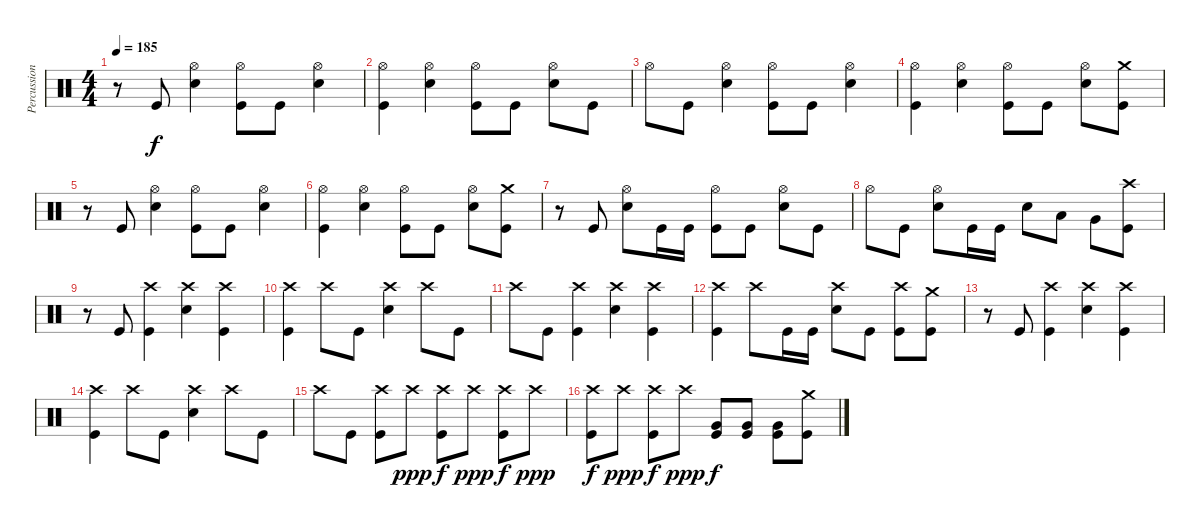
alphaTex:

\track ("Percussion" "Percussion") {instrument percussion}
\staff {score}
\articulation defaults
\ts (4 4)
\tempo 185
\clef neutral
\ks c
r.8{dy f} "Kick (hit)".8 ("Hi-Hat (open)" "Electric Snare (hit)").4 ("Hi-Hat (open)" "Kick (hit)").8 "Kick (hit)".8 ("Hi-Hat (open)" "Electric Snare (hit)").4 |
("Hi-Hat (open)" "Kick (hit)").4 ("Hi-Hat (open)" "Electric Snare (hit)").4 ("Hi-Hat (open)" "Kick (hit)").8 "Kick (hit)".8 ("Hi-Hat (open)" "Electric Snare (hit)").8 "Kick (hit)".8 |
"Hi-Hat (open)".8 "Kick (hit)".8 ("Hi-Hat (open)" "Electric Snare (hit)").4 ("Hi-Hat (open)" "Kick (hit)").8 "Kick (hit)".8 ("Hi-Hat (open)" "Electric Snare (hit)").4 |
("Hi-Hat (open)" "Kick (hit)").4 ("Hi-Hat (open)" "Electric Snare (hit)").4 ("Hi-Hat (open)" "Kick (hit)").8 "Kick (hit)".8 ("Hi-Hat (open)" "Electric Snare (hit)").8 ("Crash medium (hit)" "Kick (hit)").8 |
r.8 "Kick (hit)".8 ("Hi-Hat (open)" "Electric Snare (hit)").4 ("Hi-Hat (open)" "Kick (hit)").8 "Kick (hit)".8 ("Hi-Hat (open)" "Electric Snare (hit)").4 |
("Hi-Hat (open)" "Kick (hit)").4 ("Hi-Hat (open)" "Electric Snare (hit)").4 ("Hi-Hat (open)" "Kick (hit)").8 "Kick (hit)".8 ("Hi-Hat (open)" "Electric Snare (hit)").8 ("Crash medium (hit)" "Kick (hit)").8 |
r.8 "Kick (hit)".8 ("Hi-Hat (open)" "Electric Snare (hit)").8 "Kick (hit)".16 "Kick (hit)".16 ("Hi-Hat (open)" "Kick (hit)").8 "Kick (hit)".8 ("Hi-Hat (open)" "Electric Snare (hit)").8 "Kick (hit)".8 |
"Hi-Hat (open)".8 "Kick (hit)".8 ("Hi-Hat (open)" "Electric Snare (hit)").8 "Kick (hit)".16 "Kick (hit)".16 "Electric Snare (hit)".8 "Low Tom (hit)".8 "Very Low Tom (hit)".8 ("Crash high (hit)" "Kick (hit)").8 |
r.8 "Kick (hit)".8 ("Crash high (hit)" "Kick (hit)").4 ("Crash high (hit)" "Electric Snare (hit)").4 ("Crash high (hit)" "Kick (hit)").4 |
("Crash high (hit)" "Kick (hit)").4 "Crash high (hit)".8 "Kick (hit)".8 ("Crash high (hit)" "Electric Snare (hit)").4 "Crash high (hit)".8 "Kick (hit)".8 |
"Crash high (hit)".8 "Kick (hit)".8 ("Crash high (hit)" "Kick (hit)").4 ("Crash high (hit)" "Electric Snare (hit)").4 ("Crash high (hit)" "Kick (hit)").4 |
("Crash high (hit)" "Kick (hit)").4 "Crash high (hit)".8 "Kick (hit)".16 "Kick (hit)".16 ("Crash high (hit)" "Electric Snare (hit)").8 "Kick (hit)".8 ("Crash high (hit)" "Kick (hit)").8 ("Crash medium (hit)" "Kick (hit)").8 |
r.8 "Kick (hit)".8 ("Crash high (hit)" "Kick (hit)").4 ("Crash high (hit)" "Electric Snare (hit)").4 ("Crash high (hit)" "Kick (hit)").4 |
("Crash high (hit)" "Kick (hit)").4 "Crash high (hit)".8 "Kick (hit)".8 ("Crash high (hit)" "Electric Snare (hit)").4 "Crash high (hit)".8 "Kick (hit)".8 |
"Crash high (hit)".8 "Kick (hit)".8 ("Crash high (hit)" "Kick (hit)").8 "Crash high (hit)".8{dy ppp} ("Crash high (hit)" "Kick (hit)").8{dy f} "Crash high (hit)".8{dy ppp} ("Crash high (hit)" "Kick (hit)").8{dy f} "Crash high (hit)".8{dy ppp} |
("Crash high (hit)" "Kick (hit)").8{dy f} "Crash high (hit)".8{dy ppp} ("Crash high (hit)" "Kick (hit)").8{dy f} "Crash high (hit)".8{dy ppp} ("Very Low Tom (hit)" "Kick (hit)").8{dy f} ("Very Low Tom (hit)" "Kick (hit)").8 ("Very Low Tom (hit)" "Kick (hit)").8 ("Crash medium (hit)" "Kick (hit)").8
